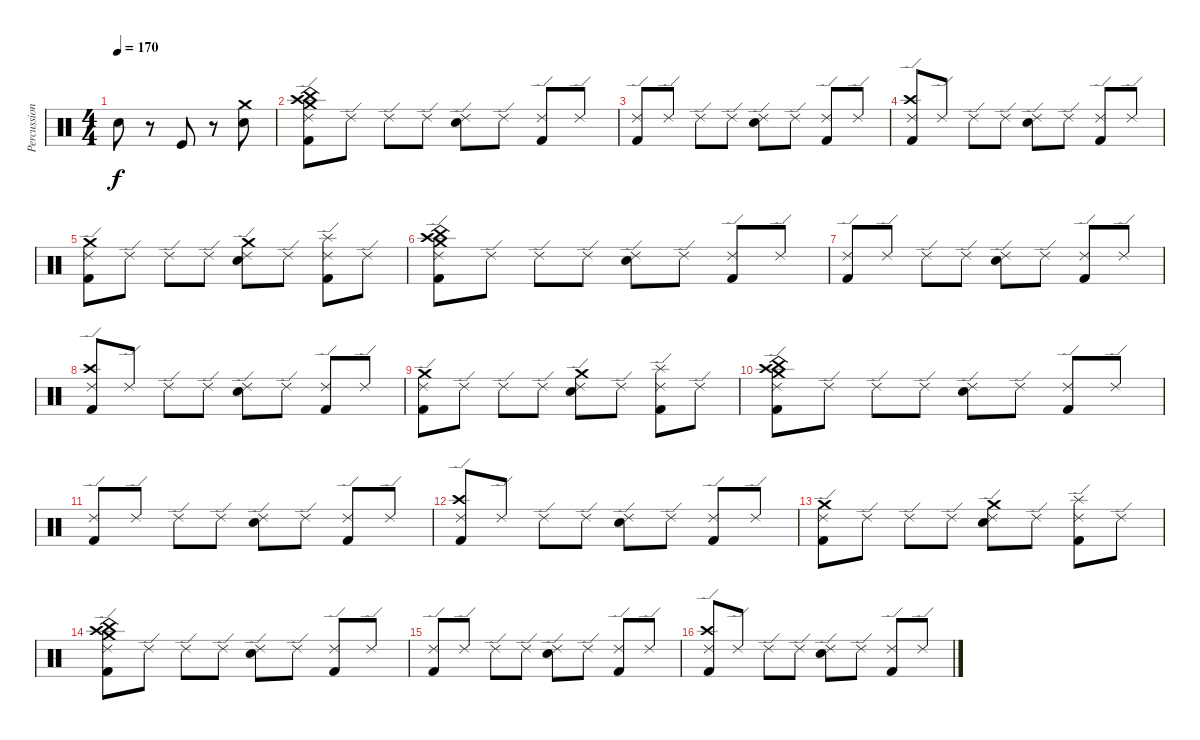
\track ("Percussion" "Percussion") {instrument percussion}
\staff {score}
\articulation defaults
\ts (4 4)
\tempo 170
\clef neutral
\ks c "Snare (hit) 2".8{dy f}
r.8 "Kick (hit)".8 r.8 ("Crash medium (hit)" "Snare (hit) 2").8 |
("China (hit)" "Crash medium (hit)" "Kick (hit) 2" "Crash high (hit)" "Ride (edge) 2").8 "Ride (edge) 2".8 "Ride (edge) 2".8 "Ride (edge) 2".8 ("Snare (hit) 2" "Ride (edge) 2").8 "Ride (edge) 2".8 ("Kick (hit) 2" "Ride (edge) 2").8 "Ride (edge) 2".8 |
("Kick (hit) 2" "Ride (edge) 2").8 "Ride (edge) 2".8 "Ride (edge) 2".8 "Ride (edge) 2".8 ("Snare (hit) 2" "Ride (edge) 2").8 "Ride (edge) 2".8 ("Kick (hit) 2" "Ride (edge) 2").8 "Ride (edge) 2".8 |
("Kick (hit) 2" "Crash high (hit)" "Ride (edge) 2").8 "Ride (edge) 2".8 "Ride (edge) 2".8 "Ride (edge) 2".8 ("Snare (hit) 2" "Ride (edge) 2").8 "Ride (edge) 2".8 ("Kick (hit) 2" "Ride (edge) 2").8 "Ride (edge) 2".8 |
("Crash medium (hit)" "Kick (hit) 2" "Ride (edge) 2").8 "Ride (edge) 2".8 "Ride (edge) 2".8 "Ride (edge) 2".8 ("Crash medium (hit)" "Snare (hit) 2" "Ride (edge) 2").8 "Ride (edge) 2".8 ("Splash (hit)" "Kick (hit) 2" "Ride (edge) 2").8 "Ride (edge) 2".8 |
("China (hit)" "Crash medium (hit)" "Kick (hit) 2" "Crash high (hit)" "Ride (edge) 2").8 "Ride (edge) 2".8 "Ride (edge) 2".8 "Ride (edge) 2".8 ("Snare (hit) 2" "Ride (edge) 2").8 "Ride (edge) 2".8 ("Kick (hit) 2" "Ride (edge) 2").8 "Ride (edge) 2".8 |
("Kick (hit) 2" "Ride (edge) 2").8 "Ride (edge) 2".8 "Ride (edge) 2".8 "Ride (edge) 2".8 ("Snare (hit) 2" "Ride (edge) 2").8 "Ride (edge) 2".8 ("Kick (hit) 2" "Ride (edge) 2").8 "Ride (edge) 2".8 |
("Kick (hit) 2" "Crash high (hit)" "Ride (edge) 2").8 "Ride (edge) 2".8 "Ride (edge) 2".8 "Ride (edge) 2".8 ("Snare (hit) 2" "Ride (edge) 2").8 "Ride (edge) 2".8 ("Kick (hit) 2" "Ride (edge) 2").8 "Ride (edge) 2".8 |
("Crash medium (hit)" "Kick (hit) 2" "Ride (edge) 2").8 "Ride (edge) 2".8 "Ride (edge) 2".8 "Ride (edge) 2".8 ("Crash medium (hit)" "Snare (hit) 2" "Ride (edge) 2").8 "Ride (edge) 2".8 ("Splash (hit)" "Kick (hit) 2" "Ride (edge) 2").8 "Ride (edge) 2".8 |
("China (hit)" "Crash medium (hit)" "Kick (hit) 2" "Crash high (hit)" "Ride (edge) 2").8 "Ride (edge) 2".8 "Ride (edge) 2".8 "Ride (edge) 2".8 ("Snare (hit) 2" "Ride (edge) 2").8 "Ride (edge) 2".8 ("Kick (hit) 2" "Ride (edge) 2").8 "Ride (edge) 2".8 |
("Kick (hit) 2" "Ride (edge) 2").8 "Ride (edge) 2".8 "Ride (edge) 2".8 "Ride (edge) 2".8 ("Snare (hit) 2" "Ride (edge) 2").8 "Ride (edge) 2".8 ("Kick (hit) 2" "Ride (edge) 2").8 "Ride (edge) 2".8 |
("Kick (hit) 2" "Crash high (hit)" "Ride (edge) 2").8 "Ride (edge) 2".8 "Ride (edge) 2".8 "Ride (edge) 2".8 ("Snare (hit) 2" "Ride (edge) 2").8 "Ride (edge) 2".8 ("Kick (hit) 2" "Ride (edge) 2").8 "Ride (edge) 2".8 |
("Crash medium (hit)" "Kick (hit) 2" "Ride (edge) 2").8 "Ride (edge) 2".8 "Ride (edge) 2".8 "Ride (edge) 2".8 ("Crash medium (hit)" "Snare (hit) 2" "Ride (edge) 2").8 "Ride (edge) 2".8 ("Splash (hit)" "Kick (hit) 2" "Ride (edge) 2").8 "Ride (edge) 2".8 |
("China (hit)" "Crash medium (hit)" "Kick (hit) 2" "Crash high (hit)" "Ride (edge) 2").8 "Ride (edge) 2".8 "Ride (edge) 2".8 "Ride (edge) 2".8 ("Snare (hit) 2" "Ride (edge) 2").8 "Ride (edge) 2".8 ("Kick (hit) 2" "Ride (edge) 2").8 "Ride (edge) 2".8 |
("Kick (hit) 2" "Ride (edge) 2").8 "Ride (edge) 2".8 "Ride (edge) 2".8 "Ride (edge) 2".8 ("Snare (hit) 2" "Ride (edge) 2").8 "Ride (edge) 2".8 ("Kick (hit) 2" "Ride (edge) 2").8 "Ride (edge) 2".8 |
("Kick (hit) 2" "Crash high (hit)" "Ride (edge) 2").8 "Ride (edge) 2".8 "Ride (edge) 2".8 "Ride (edge) 2".8 ("Snare (hit) 2" "Ride (edge) 2").8 "Ride (edge) 2".8 ("Kick (hit) 2" "Ride (edge) 2").8 "Ride (edge) 2".8
